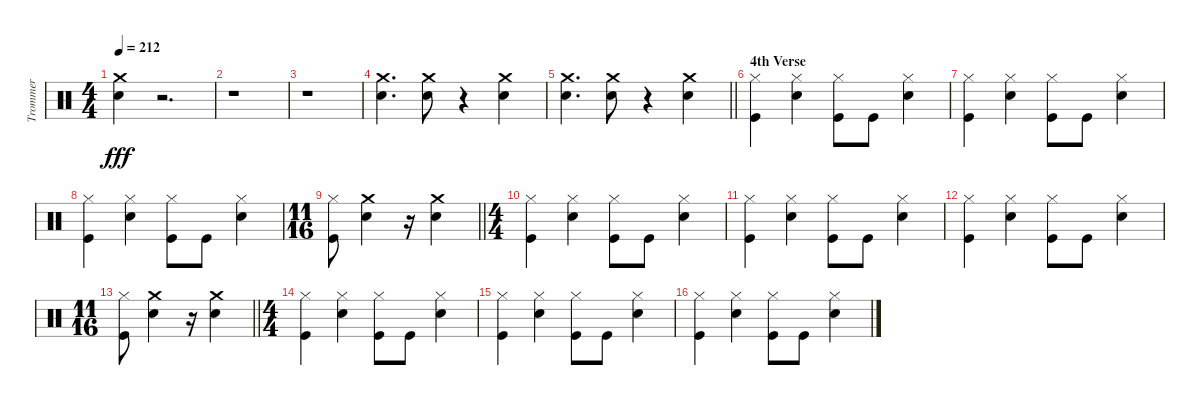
\track ("Trommer" "Trommer") {instrument percussion}
\staff {score}
\articulation defaults
\ts (4 4)
\tempo 212
\clef neutral
\ks c
("Snare (hit) 2" "Crash medium (hit)").4{dy fff} r.2{d} |
r.1 |
r.1 |
("Snare (hit) 2" "Crash medium (hit)").4{d} ("Snare (hit) 2" "Crash medium (hit)").8 r.4 ("Snare (hit) 2" "Crash medium (hit)").4 |
\barLineRight lightlight
("Snare (hit) 2" "Crash medium (hit)").4{d} ("Snare (hit) 2" "Crash medium (hit)").8 r.4 ("Snare (hit) 2" "Crash medium (hit)").4 |
\section ("" "4th Verse")
("Hi-Hat (closed)" "Kick (hit)").4 ("Snare (hit) 2" "Hi-Hat (closed)").4 ("Kick (hit)" "Hi-Hat (closed)").8 "Kick (hit)".8 ("Snare (hit) 2" "Hi-Hat (closed)").4 |
("Kick (hit)" "Hi-Hat (closed)").4 ("Snare (hit) 2" "Hi-Hat (closed)").4 ("Hi-Hat (closed)" "Kick (hit)").8 "Kick (hit)".8 ("Snare (hit) 2" "Hi-Hat (closed)").4 |
("Kick (hit)" "Hi-Hat (closed)").4 ("Snare (hit) 2" "Hi-Hat (closed)").4 ("Kick (hit)" "Hi-Hat (closed)").8 "Kick (hit)".8 ("Hi-Hat (closed)" "Snare (hit) 2").4 |
\ts (11 16)
\barLineRight lightlight
("Kick (hit)" "Hi-Hat (closed)").8 ("Crash medium (hit)" "Snare (hit) 2").4 r.16 ("Crash medium (hit)" "Snare (hit) 2").4 |
\ts (4 4)
("Hi-Hat (closed)" "Kick (hit)").4 ("Snare (hit) 2" "Hi-Hat (closed)").4 ("Kick (hit)" "Hi-Hat (closed)").8 "Kick (hit)".8 ("Snare (hit) 2" "Hi-Hat (closed)").4 |
("Kick (hit)" "Hi-Hat (closed)").4 ("Snare (hit) 2" "Hi-Hat (closed)").4 ("Hi-Hat (closed)" "Kick (hit)").8 "Kick (hit)".8 ("Snare (hit) 2" "Hi-Hat (closed)").4 |
("Kick (hit)" "Hi-Hat (closed)").4 ("Snare (hit) 2" "Hi-Hat (closed)").4 ("Kick (hit)" "Hi-Hat (closed)").8 "Kick (hit)".8 ("Hi-Hat (closed)" "Snare (hit) 2").4 |
\ts (11 16)
\barLineRight lightlight
("Kick (hit)" "Hi-Hat (closed)").8 ("Crash medium (hit)" "Snare (hit) 2").4 r.16 ("Crash medium (hit)" "Snare (hit) 2").4 |
\ts (4 4)
("Hi-Hat (closed)" "Kick (hit)").4 ("Snare (hit) 2" "Hi-Hat (closed)").4 ("Kick (hit)" "Hi-Hat (closed)").8 "Kick (hit)".8 ("Snare (hit) 2" "Hi-Hat (closed)").4 |
("Kick (hit)" "Hi-Hat (closed)").4 ("Snare (hit) 2" "Hi-Hat (closed)").4 ("Hi-Hat (closed)" "Kick (hit)").8 "Kick (hit)".8 ("Snare (hit) 2" "Hi-Hat (closed)").4 |
("Kick (hit)" "Hi-Hat (closed)").4 ("Snare (hit) 2" "Hi-Hat (closed)").4 ("Kick (hit)" "Hi-Hat (closed)").8 "Kick (hit)".8 ("Hi-Hat (closed)" "Snare (hit) 2").4
